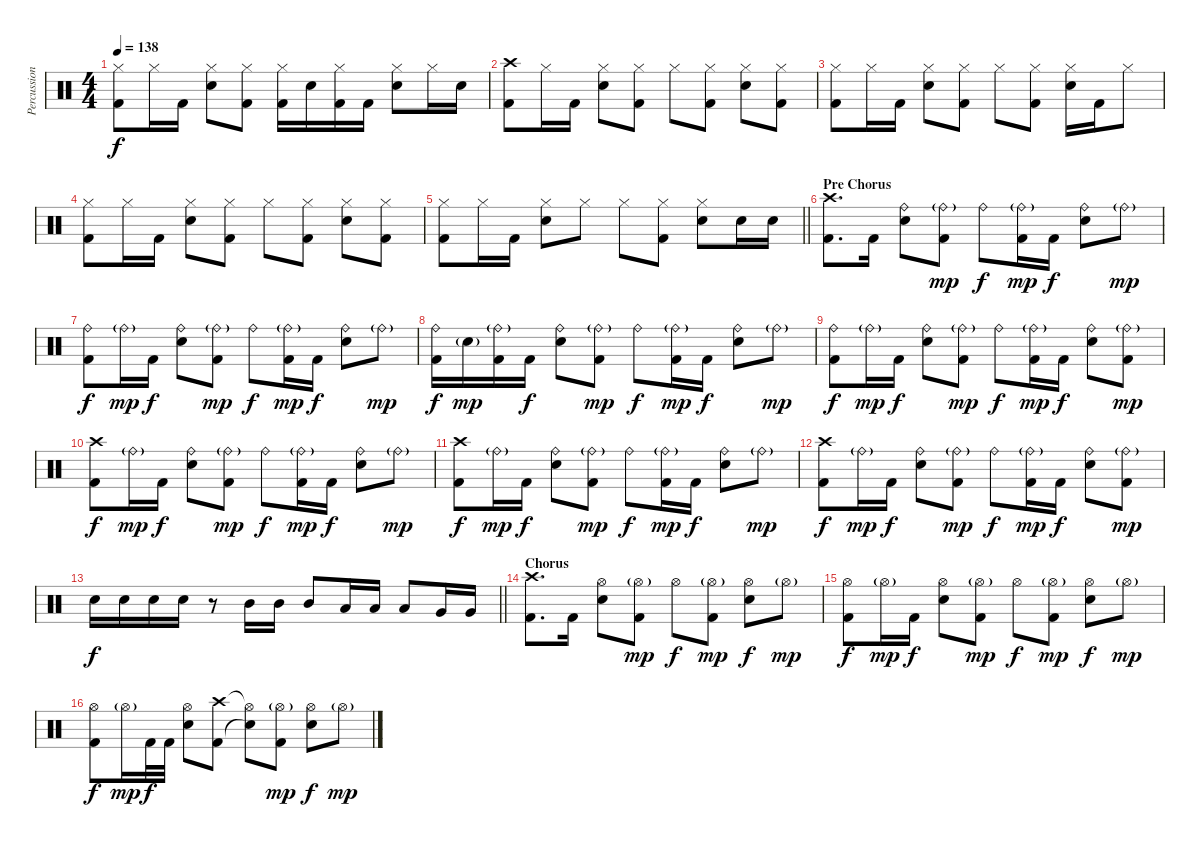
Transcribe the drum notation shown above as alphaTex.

\track ("Percussion" "Percussion") {instrument percussion}
\staff {score}
\articulation defaults
\ts (4 4)
\tempo 138
\clef neutral
\ks c
("Hi-Hat (closed)" "Kick (hit) 2").8{dy f} "Hi-Hat (closed)".16 "Kick (hit) 2".16 ("Hi-Hat (closed)" "Snare (hit) 2").8 ("Hi-Hat (closed)" "Kick (hit) 2").8 ("Hi-Hat (closed)" "Kick (hit) 2").16 "Snare (hit) 2".16 ("Hi-Hat (closed)" "Kick (hit) 2").16 "Kick (hit) 2".16 ("Hi-Hat (closed)" "Snare (hit) 2").8 "Hi-Hat (closed)".16 "Snare (hit) 2".16 |
("Crash high (hit)" "Kick (hit) 2").8 "Hi-Hat (closed)".16 "Kick (hit) 2".16 ("Hi-Hat (closed)" "Snare (hit) 2").8 ("Hi-Hat (closed)" "Kick (hit) 2").8 "Hi-Hat (closed)".8 ("Hi-Hat (closed)" "Kick (hit) 2").8 ("Hi-Hat (closed)" "Snare (hit) 2").8 ("Hi-Hat (closed)" "Kick (hit) 2").8 |
("Hi-Hat (closed)" "Kick (hit) 2").8 "Hi-Hat (closed)".16 "Kick (hit) 2".16 ("Hi-Hat (closed)" "Snare (hit) 2").8 ("Hi-Hat (closed)" "Kick (hit) 2").8 "Hi-Hat (closed)".8 ("Hi-Hat (closed)" "Kick (hit) 2").8 ("Hi-Hat (closed)" "Snare (hit) 2").16 "Kick (hit) 2".16 "Hi-Hat (closed)".8 |
("Hi-Hat (closed)" "Kick (hit) 2").8 "Hi-Hat (closed)".16 "Kick (hit) 2".16 ("Hi-Hat (closed)" "Snare (hit) 2").8 ("Hi-Hat (closed)" "Kick (hit) 2").8 "Hi-Hat (closed)".8 ("Hi-Hat (closed)" "Kick (hit) 2").8 ("Hi-Hat (closed)" "Snare (hit) 2").8 ("Hi-Hat (closed)" "Kick (hit) 2").8 |
\barLineRight lightlight
("Hi-Hat (closed)" "Kick (hit) 2").8 "Hi-Hat (closed)".16 "Kick (hit) 2".16 ("Hi-Hat (closed)" "Snare (hit) 2").8 "Hi-Hat (closed)".8 "Hi-Hat (closed)".8 ("Hi-Hat (closed)" "Kick (hit) 2").8 ("Hi-Hat (closed)" "Snare (hit) 2").8 "Snare (hit) 2".16 "Snare (hit) 2".16 |
\section ("" "Pre Chorus")
("Crash high (hit)" "Kick (hit) 2").8{d} "Kick (hit) 2".16 ("Ride (bell)" "Snare (hit) 2").8 ("Ride (bell)"{g} "Kick (hit) 2").8{dy mp} "Ride (bell)".8{dy f} ("Ride (bell)"{g} "Kick (hit) 2").16{dy mp} "Kick (hit) 2".16{dy f} ("Ride (bell)" "Snare (hit) 2").8 "Ride (bell)"{g}.8{dy mp} |
("Ride (bell)" "Kick (hit) 2").8{dy f} "Ride (bell)"{g}.16{dy mp} "Kick (hit) 2".16{dy f} ("Ride (bell)" "Snare (hit) 2").8 ("Ride (bell)"{g} "Kick (hit) 2").8{dy mp} "Ride (bell)".8{dy f} ("Ride (bell)"{g} "Kick (hit) 2").16{dy mp} "Kick (hit) 2".16{dy f} ("Ride (bell)" "Snare (hit) 2").8 "Ride (bell)"{g}.8{dy mp} |
("Ride (bell)" "Kick (hit) 2").16{dy f} "Snare (hit) 2"{g}.16{dy mp} ("Ride (bell)"{g} "Kick (hit) 2").16 "Kick (hit) 2".16{dy f} ("Ride (bell)" "Snare (hit) 2").8 ("Ride (bell)"{g} "Kick (hit) 2").8{dy mp} "Ride (bell)".8{dy f} ("Ride (bell)"{g} "Kick (hit) 2").16{dy mp} "Kick (hit) 2".16{dy f} ("Ride (bell)" "Snare (hit) 2").8 "Ride (bell)"{g}.8{dy mp} |
("Ride (bell)" "Kick (hit) 2").8{dy f} "Ride (bell)"{g}.16{dy mp} "Kick (hit) 2".16{dy f} ("Ride (bell)" "Snare (hit) 2").8 ("Ride (bell)"{g} "Kick (hit) 2").8{dy mp} "Ride (bell)".8{dy f} ("Ride (bell)"{g} "Kick (hit) 2").16{dy mp} "Kick (hit) 2".16{dy f} ("Ride (bell)" "Snare (hit) 2").8 ("Ride (bell)"{g} "Kick (hit) 2").8{dy mp} |
("Crash high (hit)" "Kick (hit) 2").8{dy f} "Ride (bell)"{g}.16{dy mp} "Kick (hit) 2".16{dy f} ("Ride (bell)" "Snare (hit) 2").8 ("Ride (bell)"{g} "Kick (hit) 2").8{dy mp} "Ride (bell)".8{dy f} ("Ride (bell)"{g} "Kick (hit) 2").16{dy mp} "Kick (hit) 2".16{dy f} ("Ride (bell)" "Snare (hit) 2").8 "Ride (bell)"{g}.8{dy mp} |
("Crash high (hit)" "Kick (hit) 2").8{dy f} "Ride (bell)"{g}.16{dy mp} "Kick (hit) 2".16{dy f} ("Ride (bell)" "Snare (hit) 2").8 ("Ride (bell)"{g} "Kick (hit) 2").8{dy mp} "Ride (bell)".8{dy f} ("Ride (bell)"{g} "Kick (hit) 2").16{dy mp} "Kick (hit) 2".16{dy f} ("Ride (bell)" "Snare (hit) 2").8 "Ride (bell)"{g}.8{dy mp} |
("Crash high (hit)" "Kick (hit) 2").8{dy f} "Ride (bell)"{g}.16{dy mp} "Kick (hit) 2".16{dy f} ("Ride (bell)" "Snare (hit) 2").8 ("Ride (bell)"{g} "Kick (hit) 2").8{dy mp} "Ride (bell)".8{dy f} ("Ride (bell)"{g} "Kick (hit) 2").16{dy mp} "Kick (hit) 2".16{dy f} ("Ride (bell)" "Snare (hit) 2").8 ("Ride (bell)"{g} "Kick (hit) 2").8{dy mp} |
\barLineRight lightlight "Snare (hit) 2".16{dy f} "Snare (hit) 2".16 "Snare (hit) 2".16 "Snare (hit) 2".16
r.8 "Mid Tom (hit)".16 "Mid Tom (hit)".16 "Mid Tom (hit)".8 "Low Tom (hit)".16 "Low Tom (hit)".16 "Low Tom (hit)".8 "Very Low Tom (hit)".16 "Very Low Tom (hit)".16 |
\section ("" "Chorus")
("Crash high (hit)" "Kick (hit) 2").8{d} "Kick (hit) 2".16 ("Hi-Hat (open)" "Snare (hit) 2").8 ("Hi-Hat (open)"{g} "Kick (hit) 2").8{dy mp} "Hi-Hat (open)".8{dy f} ("Hi-Hat (open)"{g} "Kick (hit) 2").8{dy mp} ("Hi-Hat (open)" "Snare (hit) 2").8{dy f} "Hi-Hat (open)"{g}.8{dy mp} |
("Hi-Hat (open)" "Kick (hit) 2").8{dy f} "Hi-Hat (open)"{g}.16{dy mp} "Kick (hit) 2".16{dy f} ("Hi-Hat (open)" "Snare (hit) 2").8 ("Hi-Hat (open)"{g} "Kick (hit) 2").8{dy mp} "Hi-Hat (open)".8{dy f} ("Hi-Hat (open)"{g} "Kick (hit) 2").8{dy mp} ("Hi-Hat (open)" "Snare (hit) 2").8{dy f} "Hi-Hat (open)"{g}.8{dy mp} |
("Hi-Hat (open)" "Kick (hit) 2").8{dy f} "Hi-Hat (open)"{g}.16{dy mp} "Kick (hit) 2".32{dy f} "Kick (hit) 2".32 ("Hi-Hat (open)" "Snare (hit) 2").8 ("Crash high (hit)" "Kick (hit) 2").8 ("Hi-Hat (open)"{t} "Snare (hit)"{t}).8 ("Hi-Hat (open)"{g} "Kick (hit) 2").8{dy mp} ("Hi-Hat (open)" "Snare (hit) 2").8{dy f} "Hi-Hat (open)"{g}.8{dy mp}
